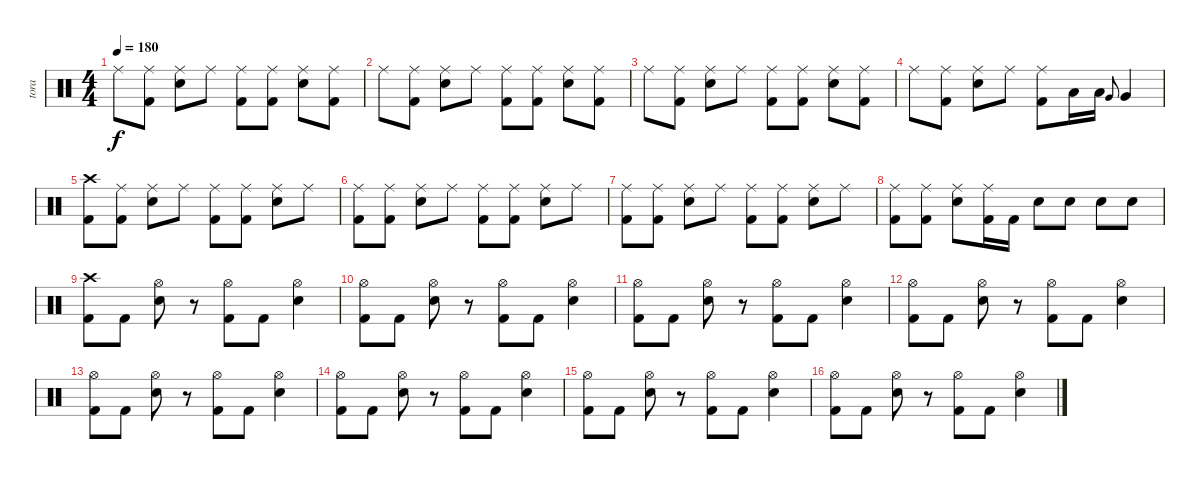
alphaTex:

\track ("tora" "tora") {instrument percussion}
\staff {score}
\articulation defaults
\ts (4 4)
\tempo 180
\clef neutral
\ks c "Ride (middle)".8{dy f}
("Ride (middle)" "Kick (hit) 2").8 ("Ride (middle)" "Snare (hit) 2").8 "Ride (middle)".8 ("Ride (middle)" "Kick (hit) 2").8 ("Ride (middle)" "Kick (hit) 2").8 ("Ride (middle)" "Snare (hit) 2").8 ("Ride (middle)" "Kick (hit) 2").8 |
"Ride (middle)".8 ("Ride (middle)" "Kick (hit) 2").8 ("Ride (middle)" "Snare (hit) 2").8 "Ride (middle)".8 ("Ride (middle)" "Kick (hit) 2").8 ("Ride (middle)" "Kick (hit) 2").8 ("Ride (middle)" "Snare (hit) 2").8 ("Ride (middle)" "Kick (hit) 2").8 |
"Ride (middle)".8 ("Ride (middle)" "Kick (hit) 2").8 ("Ride (middle)" "Snare (hit) 2").8 "Ride (middle)".8 ("Ride (middle)" "Kick (hit) 2").8 ("Ride (middle)" "Kick (hit) 2").8 ("Ride (middle)" "Snare (hit) 2").8 ("Ride (middle)" "Kick (hit) 2").8 |
"Ride (middle)".8 ("Ride (middle)" "Kick (hit) 2").8 ("Ride (middle)" "Snare (hit) 2").8 "Ride (middle)".8 ("Ride (middle)" "Kick (hit) 2").8 "Low Tom (hit)".16 "Low Tom (hit)".16 "Very Low Tom (hit)".8{gr onbeat} "Very Low Tom (hit)".4 |
("Crash high (hit)" "Kick (hit) 2").8 ("Ride (middle)" "Kick (hit) 2").8 ("Ride (middle)" "Snare (hit) 2").8 "Ride (middle)".8 ("Ride (middle)" "Kick (hit) 2").8 ("Ride (middle)" "Kick (hit) 2").8 ("Ride (middle)" "Snare (hit) 2").8 "Ride (middle)".8 |
("Ride (middle)" "Kick (hit) 2").8 ("Ride (middle)" "Kick (hit) 2").8 ("Ride (middle)" "Snare (hit) 2").8 "Ride (middle)".8 ("Ride (middle)" "Kick (hit) 2").8 ("Ride (middle)" "Kick (hit) 2").8 ("Ride (middle)" "Snare (hit) 2").8 "Ride (middle)".8 |
("Ride (middle)" "Kick (hit) 2").8 ("Ride (middle)" "Kick (hit) 2").8 ("Ride (middle)" "Snare (hit) 2").8 "Ride (middle)".8 ("Ride (middle)" "Kick (hit) 2").8 ("Ride (middle)" "Kick (hit) 2").8 ("Ride (middle)" "Snare (hit) 2").8 "Ride (middle)".8 |
("Ride (middle)" "Kick (hit) 2").8 ("Ride (middle)" "Kick (hit) 2").8 ("Ride (middle)" "Snare (hit) 2").8 ("Ride (middle)" "Kick (hit) 2").16 "Kick (hit) 2".16 "Snare (hit) 2".8 "Snare (hit) 2".8 "Snare (hit) 2".8 "Snare (hit) 2".8 |
("Crash high (hit)" "Kick (hit) 2").8 "Kick (hit) 2".8 ("Hi-Hat (open)" "Snare (hit) 2").8 r.8 ("Hi-Hat (open)" "Kick (hit) 2").8 "Kick (hit) 2".8 ("Hi-Hat (open)" "Snare (hit) 2").4 |
("Hi-Hat (open)" "Kick (hit) 2").8 "Kick (hit) 2".8 ("Hi-Hat (open)" "Snare (hit) 2").8 r.8 ("Hi-Hat (open)" "Kick (hit) 2").8 "Kick (hit) 2".8 ("Hi-Hat (open)" "Snare (hit) 2").4 |
("Hi-Hat (open)" "Kick (hit) 2").8 "Kick (hit) 2".8 ("Hi-Hat (open)" "Snare (hit) 2").8 r.8 ("Hi-Hat (open)" "Kick (hit) 2").8 "Kick (hit) 2".8 ("Hi-Hat (open)" "Snare (hit) 2").4 |
("Hi-Hat (open)" "Kick (hit) 2").8 "Kick (hit) 2".8 ("Hi-Hat (open)" "Snare (hit) 2").8 r.8 ("Hi-Hat (open)" "Kick (hit) 2").8 "Kick (hit) 2".8 ("Hi-Hat (open)" "Snare (hit) 2").4 |
("Hi-Hat (open)" "Kick (hit) 2").8 "Kick (hit) 2".8 ("Hi-Hat (open)" "Snare (hit) 2").8 r.8 ("Hi-Hat (open)" "Kick (hit) 2").8 "Kick (hit) 2".8 ("Hi-Hat (open)" "Snare (hit) 2").4 |
("Hi-Hat (open)" "Kick (hit) 2").8 "Kick (hit) 2".8 ("Hi-Hat (open)" "Snare (hit) 2").8 r.8 ("Hi-Hat (open)" "Kick (hit) 2").8 "Kick (hit) 2".8 ("Hi-Hat (open)" "Snare (hit) 2").4 |
("Hi-Hat (open)" "Kick (hit) 2").8 "Kick (hit) 2".8 ("Hi-Hat (open)" "Snare (hit) 2").8 r.8 ("Hi-Hat (open)" "Kick (hit) 2").8 "Kick (hit) 2".8 ("Hi-Hat (open)" "Snare (hit) 2").4 |
("Hi-Hat (open)" "Kick (hit) 2").8 "Kick (hit) 2".8 ("Hi-Hat (open)" "Snare (hit) 2").8 r.8 ("Hi-Hat (open)" "Kick (hit) 2").8 "Kick (hit) 2".8 ("Hi-Hat (open)" "Snare (hit) 2").4
